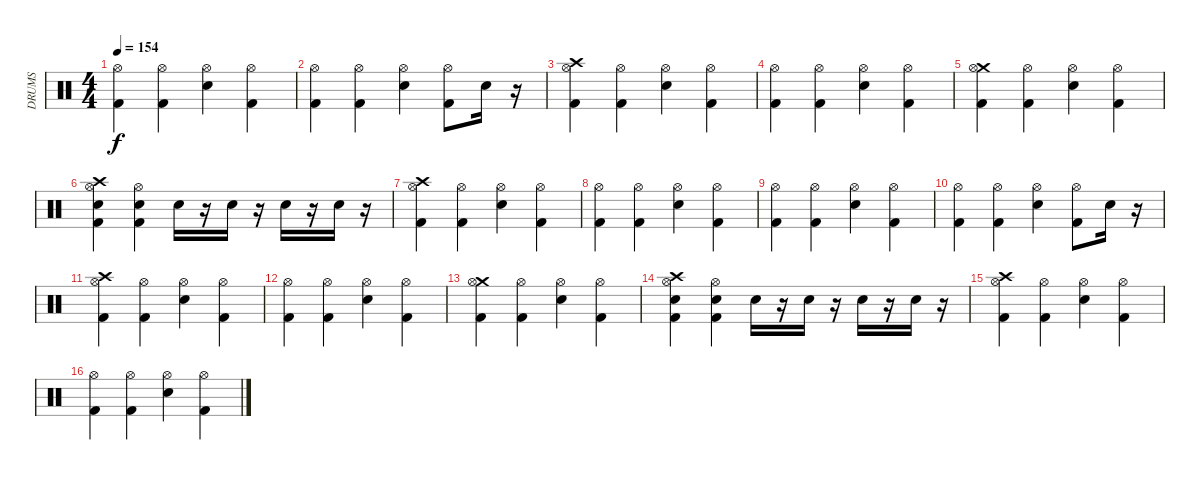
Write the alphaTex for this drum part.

\track ("DRUMS" "DRUMS") {instrument percussion}
\staff {score}
\articulation defaults
\ts (4 4)
\tempo 154
\clef neutral
\ks c
("Hi-Hat (open)" "Kick (hit) 2").4{dy f} ("Hi-Hat (open)" "Kick (hit) 2").4 ("Hi-Hat (open)" "Snare (hit) 2").4 ("Kick (hit) 2" "Hi-Hat (open)").4 |
("Hi-Hat (open)" "Kick (hit) 2").4 ("Hi-Hat (open)" "Kick (hit) 2").4 ("Hi-Hat (open)" "Snare (hit) 2").4 ("Hi-Hat (open)" "Kick (hit) 2").8 "Snare (hit) 2".16 r.16 |
("Hi-Hat (open)" "Crash high (hit)" "Kick (hit) 2").4 ("Hi-Hat (open)" "Kick (hit) 2").4 ("Hi-Hat (open)" "Snare (hit) 2").4 ("Kick (hit) 2" "Hi-Hat (open)").4 |
("Hi-Hat (open)" "Kick (hit) 2").4 ("Hi-Hat (open)" "Kick (hit) 2").4 ("Hi-Hat (open)" "Snare (hit) 2").4 ("Kick (hit) 2" "Hi-Hat (open)").4 |
("Crash medium (hit)" "Hi-Hat (open)" "Kick (hit) 2").4 ("Hi-Hat (open)" "Kick (hit) 2").4 ("Hi-Hat (open)" "Snare (hit) 2").4 ("Kick (hit) 2" "Hi-Hat (open)").4 |
("Snare (hit) 2" "Hi-Hat (open)" "Kick (hit) 2" "Crash high (hit)").4 ("Snare (hit) 2" "Hi-Hat (open)" "Kick (hit) 2").4 "Snare (hit) 2".16 r.16 "Snare (hit) 2".16 r.16 "Snare (hit) 2".16 r.16 "Snare (hit) 2".16 r.16 |
("Crash high (hit)" "Kick (hit) 2" "Hi-Hat (open)").4 ("Hi-Hat (open)" "Kick (hit) 2").4 ("Hi-Hat (open)" "Snare (hit) 2").4 ("Kick (hit) 2" "Hi-Hat (open)").4 |
("Hi-Hat (open)" "Kick (hit) 2").4 ("Hi-Hat (open)" "Kick (hit) 2").4 ("Hi-Hat (open)" "Snare (hit) 2").4 ("Kick (hit) 2" "Hi-Hat (open)").4 |
("Hi-Hat (open)" "Kick (hit) 2").4 ("Hi-Hat (open)" "Kick (hit) 2").4 ("Hi-Hat (open)" "Snare (hit) 2").4 ("Kick (hit) 2" "Hi-Hat (open)").4 |
("Hi-Hat (open)" "Kick (hit) 2").4 ("Hi-Hat (open)" "Kick (hit) 2").4 ("Hi-Hat (open)" "Snare (hit) 2").4 ("Hi-Hat (open)" "Kick (hit) 2").8 "Snare (hit) 2".16 r.16 |
("Hi-Hat (open)" "Crash high (hit)" "Kick (hit) 2").4 ("Hi-Hat (open)" "Kick (hit) 2").4 ("Hi-Hat (open)" "Snare (hit) 2").4 ("Kick (hit) 2" "Hi-Hat (open)").4 |
("Hi-Hat (open)" "Kick (hit) 2").4 ("Hi-Hat (open)" "Kick (hit) 2").4 ("Hi-Hat (open)" "Snare (hit) 2").4 ("Kick (hit) 2" "Hi-Hat (open)").4 |
("Crash medium (hit)" "Hi-Hat (open)" "Kick (hit) 2").4 ("Hi-Hat (open)" "Kick (hit) 2").4 ("Hi-Hat (open)" "Snare (hit) 2").4 ("Kick (hit) 2" "Hi-Hat (open)").4 |
("Snare (hit) 2" "Hi-Hat (open)" "Kick (hit) 2" "Crash high (hit)").4 ("Snare (hit) 2" "Hi-Hat (open)" "Kick (hit) 2").4 "Snare (hit) 2".16 r.16 "Snare (hit) 2".16 r.16 "Snare (hit) 2".16 r.16 "Snare (hit) 2".16 r.16 |
("Crash high (hit)" "Hi-Hat (open)" "Kick (hit) 2").4 ("Hi-Hat (open)" "Kick (hit) 2").4 ("Hi-Hat (open)" "Snare (hit) 2").4 ("Hi-Hat (open)" "Kick (hit) 2").4 |
("Hi-Hat (open)" "Kick (hit) 2").4 ("Hi-Hat (open)" "Kick (hit) 2").4 ("Hi-Hat (open)" "Snare (hit) 2").4 ("Hi-Hat (open)" "Kick (hit) 2").4
